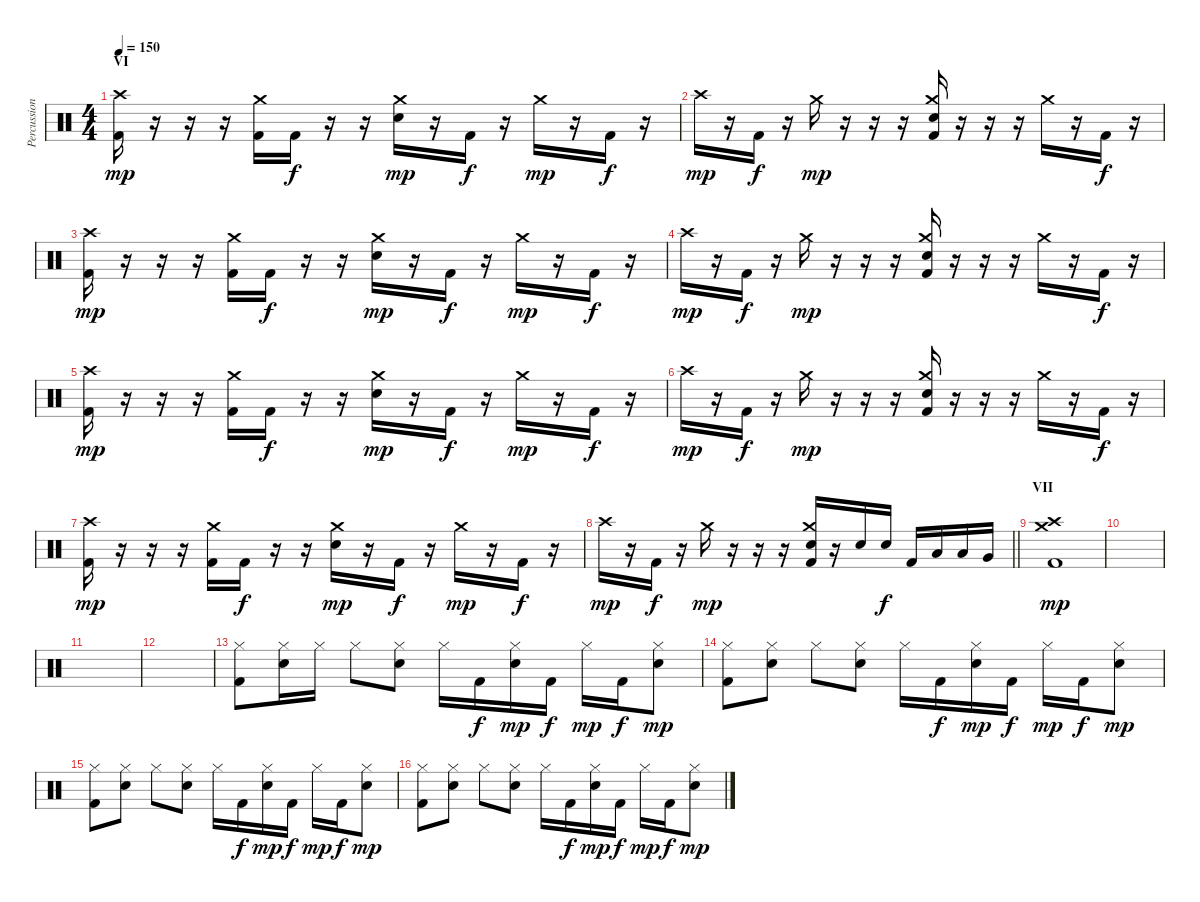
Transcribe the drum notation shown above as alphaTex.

\track ("Percussion" "Percussion") {instrument percussion}
\staff {score}
\articulation defaults
\ts (4 4)
\section ("" "VI")
\tempo 150
\clef neutral
\ks c
("Crash high (hit)" "Kick (hit) 2").16{dy mp} r.16 r.16 r.16 ("Crash medium (hit)" "Kick (hit) 2").16 "Kick (hit) 2".16{dy f} r.16 r.16 ("Crash medium (hit)" "Electric Snare (hit)").16{dy mp} r.16 "Kick (hit) 2".16{dy f} r.16 "Crash medium (hit)".16{dy mp} r.16 "Kick (hit) 2".16{dy f} r.16 |
"Crash high (hit)".16{dy mp} r.16 "Kick (hit) 2".16{dy f} r.16 "Crash medium (hit)".16{dy mp} r.16 r.16 r.16 ("Crash medium (hit)" "Electric Snare (hit)" "Kick (hit) 2").16 r.16 r.16 r.16 "Crash medium (hit)".16 r.16 "Kick (hit) 2".16{dy f} r.16 |
("Crash high (hit)" "Kick (hit) 2").16{dy mp} r.16 r.16 r.16 ("Crash medium (hit)" "Kick (hit) 2").16 "Kick (hit) 2".16{dy f} r.16 r.16 ("Crash medium (hit)" "Electric Snare (hit)").16{dy mp} r.16 "Kick (hit) 2".16{dy f} r.16 "Crash medium (hit)".16{dy mp} r.16 "Kick (hit) 2".16{dy f} r.16 |
"Crash high (hit)".16{dy mp} r.16 "Kick (hit) 2".16{dy f} r.16 "Crash medium (hit)".16{dy mp} r.16 r.16 r.16 ("Crash medium (hit)" "Electric Snare (hit)" "Kick (hit) 2").16 r.16 r.16 r.16 "Crash medium (hit)".16 r.16 "Kick (hit) 2".16{dy f} r.16 |
("Crash high (hit)" "Kick (hit) 2").16{dy mp} r.16 r.16 r.16 ("Crash medium (hit)" "Kick (hit) 2").16 "Kick (hit) 2".16{dy f} r.16 r.16 ("Crash medium (hit)" "Electric Snare (hit)").16{dy mp} r.16 "Kick (hit) 2".16{dy f} r.16 "Crash medium (hit)".16{dy mp} r.16 "Kick (hit) 2".16{dy f} r.16 |
"Crash high (hit)".16{dy mp} r.16 "Kick (hit) 2".16{dy f} r.16 "Crash medium (hit)".16{dy mp} r.16 r.16 r.16 ("Crash medium (hit)" "Electric Snare (hit)" "Kick (hit) 2").16 r.16 r.16 r.16 "Crash medium (hit)".16 r.16 "Kick (hit) 2".16{dy f} r.16 |
("Crash high (hit)" "Kick (hit) 2").16{dy mp} r.16 r.16 r.16 ("Crash medium (hit)" "Kick (hit) 2").16 "Kick (hit) 2".16{dy f} r.16 r.16 ("Crash medium (hit)" "Electric Snare (hit)").16{dy mp} r.16 "Kick (hit) 2".16{dy f} r.16 "Crash medium (hit)".16{dy mp} r.16 "Kick (hit) 2".16{dy f} r.16 |
\barLineRight lightlight "Crash high (hit)".16{dy mp}
r.16 "Kick (hit) 2".16{dy f} r.16 "Crash medium (hit)".16{dy mp} r.16 r.16 r.16 ("Crash medium (hit)" "Electric Snare (hit)" "Kick (hit) 2").16 r.16 "Electric Snare (hit)".16 "Electric Snare (hit)".16{dy f} "Kick (hit) 2".16 "Low Tom (hit)".16 "Low Tom (hit)".16 "Very Low Tom (hit)".16 |
\section ("" "VII")
("Crash medium (hit)" "Crash high (hit)" "Kick (hit) 2").1{dy mp} |
|
|
|
("Hi-Hat (closed)" "Kick (hit) 2").8 ("Hi-Hat (closed)" "Electric Snare (hit)").16 "Hi-Hat (closed)".16 "Hi-Hat (closed)".8 ("Hi-Hat (closed)" "Electric Snare (hit)").8 "Hi-Hat (closed)".16 "Kick (hit) 2".16{dy f} ("Hi-Hat (closed)" "Electric Snare (hit)").16{dy mp} "Kick (hit) 2".16{dy f} "Hi-Hat (closed)".16{dy mp} "Kick (hit) 2".16{dy f} ("Hi-Hat (closed)" "Electric Snare (hit)").8{dy mp} |
("Hi-Hat (closed)" "Kick (hit) 2").8 ("Hi-Hat (closed)" "Electric Snare (hit)").8 "Hi-Hat (closed)".8 ("Hi-Hat (closed)" "Electric Snare (hit)").8 "Hi-Hat (closed)".16 "Kick (hit) 2".16{dy f} ("Hi-Hat (closed)" "Electric Snare (hit)").16{dy mp} "Kick (hit) 2".16{dy f} "Hi-Hat (closed)".16{dy mp} "Kick (hit) 2".16{dy f} ("Hi-Hat (closed)" "Electric Snare (hit)").8{dy mp} |
("Hi-Hat (closed)" "Kick (hit) 2").8 ("Hi-Hat (closed)" "Electric Snare (hit)").8 "Hi-Hat (closed)".8 ("Hi-Hat (closed)" "Electric Snare (hit)").8 "Hi-Hat (closed)".16 "Kick (hit) 2".16{dy f} ("Hi-Hat (closed)" "Electric Snare (hit)").16{dy mp} "Kick (hit) 2".16{dy f} "Hi-Hat (closed)".16{dy mp} "Kick (hit) 2".16{dy f} ("Hi-Hat (closed)" "Electric Snare (hit)").8{dy mp} |
("Hi-Hat (closed)" "Kick (hit) 2").8 ("Hi-Hat (closed)" "Electric Snare (hit)").8 "Hi-Hat (closed)".8 ("Hi-Hat (closed)" "Electric Snare (hit)").8 "Hi-Hat (closed)".16 "Kick (hit) 2".16{dy f} ("Hi-Hat (closed)" "Electric Snare (hit)").16{dy mp} "Kick (hit) 2".16{dy f} "Hi-Hat (closed)".16{dy mp} "Kick (hit) 2".16{dy f} ("Hi-Hat (closed)" "Electric Snare (hit)").8{dy mp}
